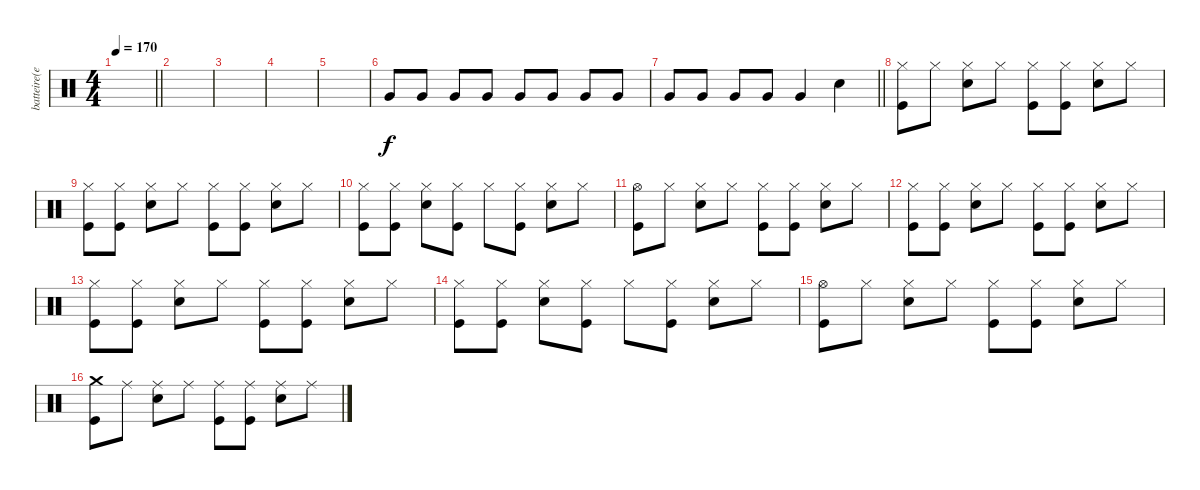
\track ("batteire(eric)" "batteire(e") {instrument percussion}
\staff {score}
\articulation defaults
\ts (4 4)
\tempo 170
\clef neutral
\barLineRight lightlight
\ks c
|
|
|
|
|
"Very Low Tom (hit)".8 "Very Low Tom (hit)".8 "Very Low Tom (hit)".8 "Very Low Tom (hit)".8 "Very Low Tom (hit)".8 "Very Low Tom (hit)".8 "Very Low Tom (hit)".8 "Very Low Tom (hit)".8 |
\barLineRight lightlight "Very Low Tom (hit)".8 "Very Low Tom (hit)".8 "Very Low Tom (hit)".8 "Very Low Tom (hit)".8 "Very Low Tom (hit)".4 "Snare (hit) 2".4
|
("Hi-Hat (closed)" "Kick (hit)").8 "Hi-Hat (closed)".8 ("Hi-Hat (closed)" "Snare (hit) 2").8 "Hi-Hat (closed)".8 ("Hi-Hat (closed)" "Kick (hit)").8 ("Hi-Hat (closed)" "Kick (hit)").8 ("Hi-Hat (closed)" "Snare (hit) 2").8 "Hi-Hat (closed)".8 |
("Hi-Hat (closed)" "Kick (hit)").8 ("Hi-Hat (closed)" "Kick (hit)").8 ("Hi-Hat (closed)" "Snare (hit) 2").8 "Hi-Hat (closed)".8 ("Hi-Hat (closed)" "Kick (hit)").8 ("Hi-Hat (closed)" "Kick (hit)").8 ("Hi-Hat (closed)" "Snare (hit) 2").8 "Hi-Hat (closed)".8 |
("Hi-Hat (closed)" "Kick (hit)").8 ("Hi-Hat (closed)" "Kick (hit)").8 ("Hi-Hat (closed)" "Snare (hit) 2").8 ("Hi-Hat (closed)" "Kick (hit)").8 "Hi-Hat (closed)".8 ("Hi-Hat (closed)" "Kick (hit)").8 ("Hi-Hat (closed)" "Snare (hit) 2").8 "Hi-Hat (closed)".8 |
("Hi-Hat (open)" "Kick (hit)").8 "Hi-Hat (closed)".8 ("Hi-Hat (closed)" "Snare (hit) 2").8 "Hi-Hat (closed)".8 ("Hi-Hat (closed)" "Kick (hit)").8 ("Hi-Hat (closed)" "Kick (hit)").8 ("Hi-Hat (closed)" "Snare (hit) 2").8 "Hi-Hat (closed)".8 |
("Hi-Hat (closed)" "Kick (hit)").8 ("Hi-Hat (closed)" "Kick (hit)").8 ("Hi-Hat (closed)" "Snare (hit) 2").8 "Hi-Hat (closed)".8 ("Hi-Hat (closed)" "Kick (hit)").8 ("Hi-Hat (closed)" "Kick (hit)").8 ("Hi-Hat (closed)" "Snare (hit) 2").8 "Hi-Hat (closed)".8 |
("Hi-Hat (closed)" "Kick (hit)").8 ("Hi-Hat (closed)" "Kick (hit)").8 ("Hi-Hat (closed)" "Snare (hit) 2").8 "Hi-Hat (closed)".8 ("Hi-Hat (closed)" "Kick (hit)").8 ("Hi-Hat (closed)" "Kick (hit)").8 ("Hi-Hat (closed)" "Snare (hit) 2").8 "Hi-Hat (closed)".8 |
("Hi-Hat (closed)" "Kick (hit)").8 ("Hi-Hat (closed)" "Kick (hit)").8 ("Hi-Hat (closed)" "Snare (hit) 2").8 ("Hi-Hat (closed)" "Kick (hit)").8 "Hi-Hat (closed)".8 ("Hi-Hat (closed)" "Kick (hit)").8 ("Hi-Hat (closed)" "Snare (hit) 2").8 "Hi-Hat (closed)".8 |
("Hi-Hat (open)" "Kick (hit)").8 "Hi-Hat (closed)".8 ("Hi-Hat (closed)" "Snare (hit) 2").8 "Hi-Hat (closed)".8 ("Hi-Hat (closed)" "Kick (hit)").8 ("Hi-Hat (closed)" "Kick (hit)").8 ("Hi-Hat (closed)" "Snare (hit) 2").8 "Hi-Hat (closed)".8 |
("Crash medium (hit)" "Kick (hit)").8 "Ride (middle)".8 ("Ride (middle)" "Snare (hit) 2").8 "Ride (middle)".8 ("Ride (middle)" "Kick (hit)").8 ("Ride (middle)" "Kick (hit)").8 ("Ride (middle)" "Snare (hit) 2").8 "Ride (middle)".8
